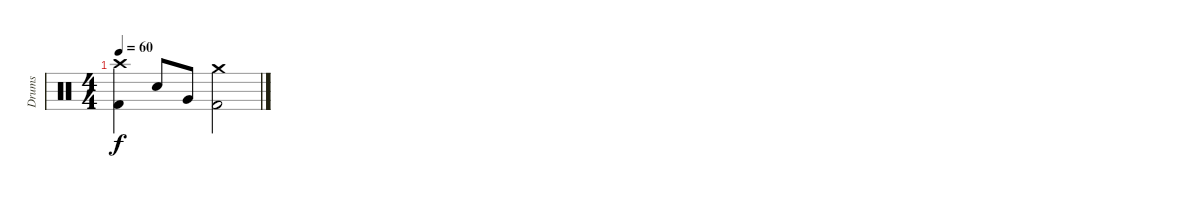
\track ("Drums" "Drums") {instrument percussion}
\staff {score}
\articulation defaults
\ts (4 4)
\tempo 60
\clef neutral
\ks c
("Crash high (hit)" "Kick (hit) 2").4{dy f} "Snare (hit) 2".8 "Very Low Tom (hit)".8 ("Crash medium (hit)" "Kick (hit) 2").2
